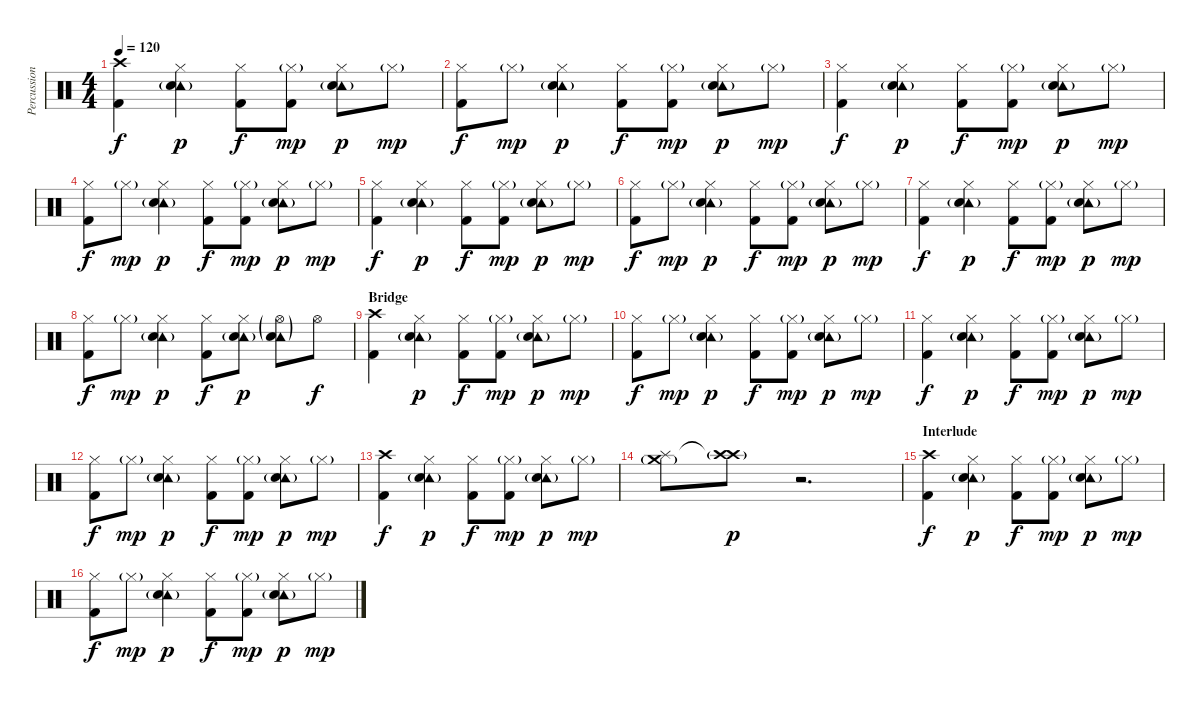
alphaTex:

\track ("Percussion     E" "Percussion") {instrument percussion}
\staff {score}
\articulation defaults
\ts (4 4)
\tempo 120
\clef neutral
\ks c
("Crash high (hit)" "Kick (hit) 2").4{dy f} ("Hi-Hat (closed)" "Tambourine (hit)"{g} "Electric Snare (hit)").4{dy p} ("Hi-Hat (closed)" "Kick (hit) 2").8{dy f} ("Hi-Hat (closed)"{g} "Kick (hit) 2").8{dy mp} ("Hi-Hat (closed)" "Tambourine (hit)"{g} "Electric Snare (hit)").8{dy p} "Hi-Hat (closed)"{g}.8{dy mp} |
("Hi-Hat (closed)" "Kick (hit) 2").8{dy f} "Hi-Hat (closed)"{g}.8{dy mp} ("Hi-Hat (closed)" "Tambourine (hit)"{g} "Electric Snare (hit)").4{dy p} ("Hi-Hat (closed)" "Kick (hit) 2").8{dy f} ("Hi-Hat (closed)"{g} "Kick (hit) 2").8{dy mp} ("Hi-Hat (closed)" "Tambourine (hit)"{g} "Electric Snare (hit)").8{dy p} "Hi-Hat (closed)"{g}.8{dy mp} |
("Hi-Hat (closed)" "Kick (hit) 2").4{dy f} ("Hi-Hat (closed)" "Tambourine (hit)"{g} "Electric Snare (hit)").4{dy p} ("Hi-Hat (closed)" "Kick (hit) 2").8{dy f} ("Hi-Hat (closed)"{g} "Kick (hit) 2").8{dy mp} ("Hi-Hat (closed)" "Tambourine (hit)"{g} "Electric Snare (hit)").8{dy p} "Hi-Hat (closed)"{g}.8{dy mp} |
("Hi-Hat (closed)" "Kick (hit) 2").8{dy f} "Hi-Hat (closed)"{g}.8{dy mp} ("Hi-Hat (closed)" "Tambourine (hit)"{g} "Electric Snare (hit)").4{dy p} ("Hi-Hat (closed)" "Kick (hit) 2").8{dy f} ("Hi-Hat (closed)"{g} "Kick (hit) 2").8{dy mp} ("Hi-Hat (closed)" "Tambourine (hit)"{g} "Electric Snare (hit)").8{dy p} "Hi-Hat (closed)"{g}.8{dy mp} |
("Hi-Hat (closed)" "Kick (hit) 2").4{dy f} ("Hi-Hat (closed)" "Tambourine (hit)"{g} "Electric Snare (hit)").4{dy p} ("Hi-Hat (closed)" "Kick (hit) 2").8{dy f} ("Hi-Hat (closed)"{g} "Kick (hit) 2").8{dy mp} ("Hi-Hat (closed)" "Tambourine (hit)"{g} "Electric Snare (hit)").8{dy p} "Hi-Hat (closed)"{g}.8{dy mp} |
("Hi-Hat (closed)" "Kick (hit) 2").8{dy f} "Hi-Hat (closed)"{g}.8{dy mp} ("Hi-Hat (closed)" "Tambourine (hit)"{g} "Electric Snare (hit)").4{dy p} ("Hi-Hat (closed)" "Kick (hit) 2").8{dy f} ("Hi-Hat (closed)"{g} "Kick (hit) 2").8{dy mp} ("Hi-Hat (closed)" "Tambourine (hit)"{g} "Electric Snare (hit)").8{dy p} "Hi-Hat (closed)"{g}.8{dy mp} |
("Hi-Hat (closed)" "Kick (hit) 2").4{dy f} ("Hi-Hat (closed)" "Tambourine (hit)"{g} "Electric Snare (hit)").4{dy p} ("Hi-Hat (closed)" "Kick (hit) 2").8{dy f} ("Hi-Hat (closed)"{g} "Kick (hit) 2").8{dy mp} ("Hi-Hat (closed)" "Tambourine (hit)"{g} "Electric Snare (hit)").8{dy p} "Hi-Hat (closed)"{g}.8{dy mp} |
("Hi-Hat (closed)" "Kick (hit) 2").8{dy f} "Hi-Hat (closed)"{g}.8{dy mp} ("Hi-Hat (closed)" "Tambourine (hit)"{g} "Electric Snare (hit)").4{dy p} ("Hi-Hat (closed)" "Kick (hit) 2").8{dy f} ("Hi-Hat (closed)" "Tambourine (hit)"{g} "Electric Snare (hit)").8{dy p} ("Hi-Hat (open)"{g} "Tambourine (hit)"{g} "Electric Snare (hit)").8 "Hi-Hat (open)".8{dy f} |
\section ("" "Bridge ")
("Crash high (hit)" "Kick (hit) 2").4 ("Hi-Hat (closed)" "Tambourine (hit)"{g} "Electric Snare (hit)").4{dy p} ("Hi-Hat (closed)" "Kick (hit) 2").8{dy f} ("Hi-Hat (closed)"{g} "Kick (hit) 2").8{dy mp} ("Hi-Hat (closed)" "Tambourine (hit)"{g} "Electric Snare (hit)").8{dy p} "Hi-Hat (closed)"{g}.8{dy mp} |
("Hi-Hat (closed)" "Kick (hit) 2").8{dy f} "Hi-Hat (closed)"{g}.8{dy mp} ("Hi-Hat (closed)" "Tambourine (hit)"{g} "Electric Snare (hit)").4{dy p} ("Hi-Hat (closed)" "Kick (hit) 2").8{dy f} ("Hi-Hat (closed)"{g} "Kick (hit) 2").8{dy mp} ("Hi-Hat (closed)" "Tambourine (hit)"{g} "Electric Snare (hit)").8{dy p} "Hi-Hat (closed)"{g}.8{dy mp} |
("Hi-Hat (closed)" "Kick (hit) 2").4{dy f} ("Hi-Hat (closed)" "Tambourine (hit)"{g} "Electric Snare (hit)").4{dy p} ("Hi-Hat (closed)" "Kick (hit) 2").8{dy f} ("Hi-Hat (closed)"{g} "Kick (hit) 2").8{dy mp} ("Hi-Hat (closed)" "Tambourine (hit)"{g} "Electric Snare (hit)").8{dy p} "Hi-Hat (closed)"{g}.8{dy mp} |
("Hi-Hat (closed)" "Kick (hit) 2").8{dy f} "Hi-Hat (closed)"{g}.8{dy mp} ("Hi-Hat (closed)" "Tambourine (hit)"{g} "Electric Snare (hit)").4{dy p} ("Hi-Hat (closed)" "Kick (hit) 2").8{dy f} ("Hi-Hat (closed)"{g} "Kick (hit) 2").8{dy mp} ("Hi-Hat (closed)" "Tambourine (hit)"{g} "Electric Snare (hit)").8{dy p} "Hi-Hat (closed)"{g}.8{dy mp} |
("Crash high (hit)" "Kick (hit) 2").4{dy f} ("Hi-Hat (closed)" "Tambourine (hit)"{g} "Electric Snare (hit)").4{dy p} ("Hi-Hat (closed)" "Kick (hit) 2").8{dy f} ("Hi-Hat (closed)"{g} "Kick (hit) 2").8{dy mp} ("Hi-Hat (closed)" "Tambourine (hit)"{g} "Electric Snare (hit)").8{dy p} "Hi-Hat (closed)"{g}.8{dy mp} |
("Splash (hit)" "Crash medium (hit)"{g}).8 ("Crash high (hit)"{t} "Crash high (hit)"{g}).8{dy p} r.2{d} |
\section ("" "Interlude")
("Crash high (hit)" "Kick (hit) 2").4{dy f} ("Hi-Hat (closed)" "Tambourine (hit)"{g} "Electric Snare (hit)").4{dy p} ("Hi-Hat (closed)" "Kick (hit) 2").8{dy f} ("Hi-Hat (closed)"{g} "Kick (hit) 2").8{dy mp} ("Hi-Hat (closed)" "Tambourine (hit)"{g} "Electric Snare (hit)").8{dy p} "Hi-Hat (closed)"{g}.8{dy mp} |
("Hi-Hat (closed)" "Kick (hit) 2").8{dy f} "Hi-Hat (closed)"{g}.8{dy mp} ("Hi-Hat (closed)" "Tambourine (hit)"{g} "Electric Snare (hit)").4{dy p} ("Hi-Hat (closed)" "Kick (hit) 2").8{dy f} ("Hi-Hat (closed)"{g} "Kick (hit) 2").8{dy mp} ("Hi-Hat (closed)" "Tambourine (hit)"{g} "Electric Snare (hit)").8{dy p} "Hi-Hat (closed)"{g}.8{dy mp}
